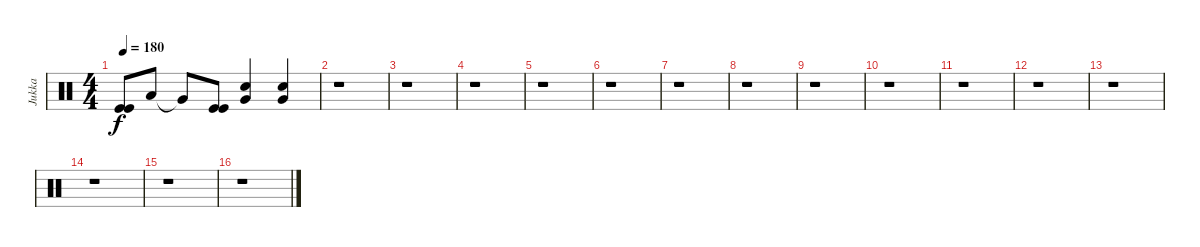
\track ("Jukka" "Jukka") {instrument percussion}
\staff {score}
\articulation defaults
\ts (4 4)
\tempo 180
\clef neutral
\ks c
("Kick (hit)" "Kick (hit)").8{dy f} "Low Tom (hit)".8 "Very Low Tom (hit)"{t}.8 ("Kick (hit)" "Kick (hit)").8 ("Snare (hit) 2" "Very Low Tom (hit)").4 ("Snare (hit) 2" "Very Low Tom (hit)").4 |
r.1 |
r.1 |
r.1 |
r.1 |
r.1 |
r.1 |
r.1 |
r.1 |
r.1 |
r.1 |
r.1 |
r.1 |
r.1 |
r.1 |
r.1
